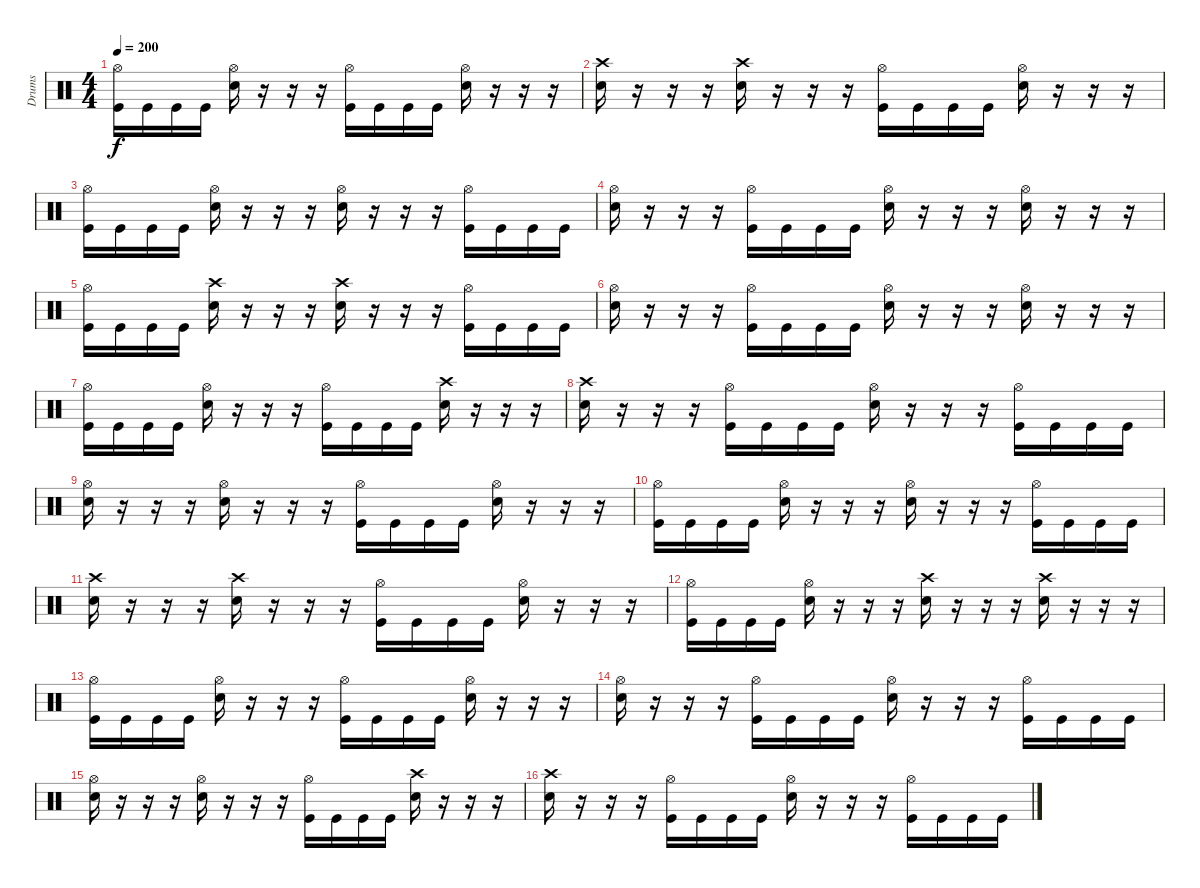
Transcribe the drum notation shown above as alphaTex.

\track ("Drums" "Drums") {instrument percussion}
\staff {score}
\articulation defaults
\ts (4 4)
\tempo 200
\clef neutral
\ks c
("Hi-Hat (open)" "Kick (hit)").16{dy f} "Kick (hit)".16 "Kick (hit)".16 "Kick (hit)".16 ("Hi-Hat (open)" "Snare (hit) 2").16 r.16 r.16 r.16 ("Hi-Hat (open)" "Kick (hit)").16 "Kick (hit)".16 "Kick (hit)".16 "Kick (hit)".16 ("Hi-Hat (open)" "Snare (hit) 2").16 r.16 r.16 r.16 |
("Crash high (hit)" "Snare (hit) 2").16 r.16 r.16 r.16 ("Crash high (hit)" "Snare (hit) 2").16 r.16 r.16 r.16 ("Hi-Hat (open)" "Kick (hit)").16 "Kick (hit)".16 "Kick (hit)".16 "Kick (hit)".16 ("Hi-Hat (open)" "Snare (hit) 2").16 r.16 r.16 r.16 |
("Hi-Hat (open)" "Kick (hit)").16 "Kick (hit)".16 "Kick (hit)".16 "Kick (hit)".16 ("Hi-Hat (open)" "Snare (hit) 2").16 r.16 r.16 r.16 ("Hi-Hat (open)" "Snare (hit) 2").16 r.16 r.16 r.16 ("Hi-Hat (open)" "Kick (hit)").16 "Kick (hit)".16 "Kick (hit)".16 "Kick (hit)".16 |
("Hi-Hat (open)" "Snare (hit) 2").16 r.16 r.16 r.16 ("Hi-Hat (open)" "Kick (hit)").16 "Kick (hit)".16 "Kick (hit)".16 "Kick (hit)".16 ("Hi-Hat (open)" "Snare (hit) 2").16 r.16 r.16 r.16 ("Hi-Hat (open)" "Snare (hit) 2").16 r.16 r.16 r.16 |
("Hi-Hat (open)" "Kick (hit)").16 "Kick (hit)".16 "Kick (hit)".16 "Kick (hit)".16 ("Crash high (hit)" "Snare (hit) 2").16 r.16 r.16 r.16 ("Crash high (hit)" "Snare (hit) 2").16 r.16 r.16 r.16 ("Hi-Hat (open)" "Kick (hit)").16 "Kick (hit)".16 "Kick (hit)".16 "Kick (hit)".16 |
("Hi-Hat (open)" "Snare (hit) 2").16 r.16 r.16 r.16 ("Hi-Hat (open)" "Kick (hit)").16 "Kick (hit)".16 "Kick (hit)".16 "Kick (hit)".16 ("Hi-Hat (open)" "Snare (hit) 2").16 r.16 r.16 r.16 ("Hi-Hat (open)" "Snare (hit) 2").16 r.16 r.16 r.16 |
("Hi-Hat (open)" "Kick (hit)").16 "Kick (hit)".16 "Kick (hit)".16 "Kick (hit)".16 ("Hi-Hat (open)" "Snare (hit) 2").16 r.16 r.16 r.16 ("Hi-Hat (open)" "Kick (hit)").16 "Kick (hit)".16 "Kick (hit)".16 "Kick (hit)".16 ("Crash high (hit)" "Snare (hit) 2").16 r.16 r.16 r.16 |
("Crash high (hit)" "Snare (hit) 2").16 r.16 r.16 r.16 ("Hi-Hat (open)" "Kick (hit)").16 "Kick (hit)".16 "Kick (hit)".16 "Kick (hit)".16 ("Hi-Hat (open)" "Snare (hit) 2").16 r.16 r.16 r.16 ("Hi-Hat (open)" "Kick (hit)").16 "Kick (hit)".16 "Kick (hit)".16 "Kick (hit)".16 |
("Hi-Hat (open)" "Snare (hit) 2").16 r.16 r.16 r.16 ("Hi-Hat (open)" "Snare (hit) 2").16 r.16 r.16 r.16 ("Hi-Hat (open)" "Kick (hit)").16 "Kick (hit)".16 "Kick (hit)".16 "Kick (hit)".16 ("Hi-Hat (open)" "Snare (hit) 2").16 r.16 r.16 r.16 |
("Hi-Hat (open)" "Kick (hit)").16 "Kick (hit)".16 "Kick (hit)".16 "Kick (hit)".16 ("Hi-Hat (open)" "Snare (hit) 2").16 r.16 r.16 r.16 ("Hi-Hat (open)" "Snare (hit) 2").16 r.16 r.16 r.16 ("Hi-Hat (open)" "Kick (hit)").16 "Kick (hit)".16 "Kick (hit)".16 "Kick (hit)".16 |
("Crash high (hit)" "Snare (hit) 2").16 r.16 r.16 r.16 ("Crash high (hit)" "Snare (hit) 2").16 r.16 r.16 r.16 ("Hi-Hat (open)" "Kick (hit)").16 "Kick (hit)".16 "Kick (hit)".16 "Kick (hit)".16 ("Hi-Hat (open)" "Snare (hit) 2").16 r.16 r.16 r.16 |
("Hi-Hat (open)" "Kick (hit)").16 "Kick (hit)".16 "Kick (hit)".16 "Kick (hit)".16 ("Hi-Hat (open)" "Snare (hit) 2").16 r.16 r.16 r.16 ("Crash high (hit)" "Snare (hit) 2").16 r.16 r.16 r.16 ("Crash high (hit)" "Snare (hit) 2").16 r.16 r.16 r.16 |
("Hi-Hat (open)" "Kick (hit)").16 "Kick (hit)".16 "Kick (hit)".16 "Kick (hit)".16 ("Hi-Hat (open)" "Snare (hit) 2").16 r.16 r.16 r.16 ("Hi-Hat (open)" "Kick (hit)").16 "Kick (hit)".16 "Kick (hit)".16 "Kick (hit)".16 ("Hi-Hat (open)" "Snare (hit) 2").16 r.16 r.16 r.16 |
("Hi-Hat (open)" "Snare (hit) 2").16 r.16 r.16 r.16 ("Hi-Hat (open)" "Kick (hit)").16 "Kick (hit)".16 "Kick (hit)".16 "Kick (hit)".16 ("Hi-Hat (open)" "Snare (hit) 2").16 r.16 r.16 r.16 ("Hi-Hat (open)" "Kick (hit)").16 "Kick (hit)".16 "Kick (hit)".16 "Kick (hit)".16 |
("Hi-Hat (open)" "Snare (hit) 2").16 r.16 r.16 r.16 ("Hi-Hat (open)" "Snare (hit) 2").16 r.16 r.16 r.16 ("Hi-Hat (open)" "Kick (hit)").16 "Kick (hit)".16 "Kick (hit)".16 "Kick (hit)".16 ("Crash high (hit)" "Snare (hit) 2").16 r.16 r.16 r.16 |
("Crash high (hit)" "Snare (hit) 2").16 r.16 r.16 r.16 ("Hi-Hat (open)" "Kick (hit)").16 "Kick (hit)".16 "Kick (hit)".16 "Kick (hit)".16 ("Hi-Hat (open)" "Snare (hit) 2").16 r.16 r.16 r.16 ("Hi-Hat (open)" "Kick (hit)").16 "Kick (hit)".16 "Kick (hit)".16 "Kick (hit)".16
